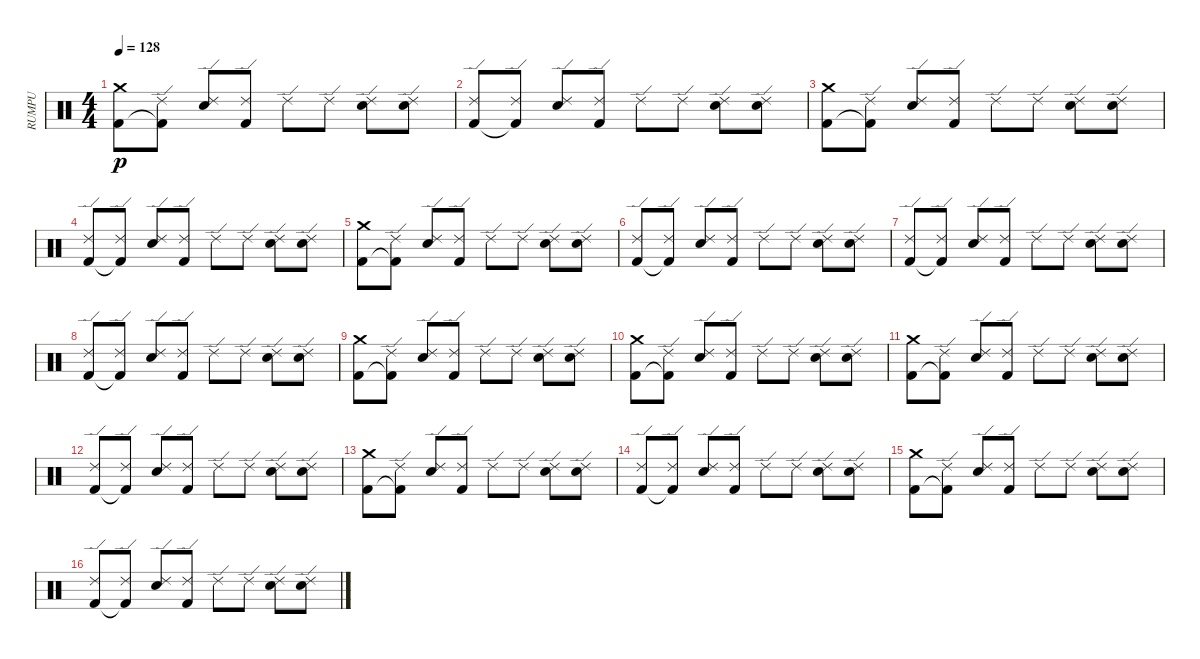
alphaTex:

\track ("RUMPU" "RUMPU") {instrument percussion}
\staff {score}
\articulation defaults
\ts (4 4)
\tempo 128
\clef neutral
\ks c
("Crash medium (hit)" "Kick (hit) 2").8{dy p} ("Ride (edge) 2" "Kick (hit) 2"{t}).8 ("Ride (edge) 2" "Electric Snare (hit)").8 ("Ride (edge) 2" "Kick (hit) 2").8 "Ride (edge) 2".8 "Ride (edge) 2".8 ("Ride (edge) 2" "Electric Snare (hit)").8 ("Ride (edge) 2" "Electric Snare (hit)").8 |
("Ride (edge) 2" "Kick (hit) 2").8 ("Ride (edge) 2" "Kick (hit) 2"{t}).8 ("Ride (edge) 2" "Electric Snare (hit)").8 ("Ride (edge) 2" "Kick (hit) 2").8 "Ride (edge) 2".8 "Ride (edge) 2".8 ("Ride (edge) 2" "Electric Snare (hit)").8 ("Ride (edge) 2" "Electric Snare (hit)").8 |
("Crash medium (hit)" "Kick (hit) 2").8 ("Ride (edge) 2" "Kick (hit) 2"{t}).8 ("Ride (edge) 2" "Electric Snare (hit)").8 ("Ride (edge) 2" "Kick (hit) 2").8 "Ride (edge) 2".8 "Ride (edge) 2".8 ("Ride (edge) 2" "Electric Snare (hit)").8 ("Ride (edge) 2" "Electric Snare (hit)").8 |
("Ride (edge) 2" "Kick (hit) 2").8 ("Ride (edge) 2" "Kick (hit) 2"{t}).8 ("Ride (edge) 2" "Electric Snare (hit)").8 ("Ride (edge) 2" "Kick (hit) 2").8 "Ride (edge) 2".8 "Ride (edge) 2".8 ("Ride (edge) 2" "Electric Snare (hit)").8 ("Ride (edge) 2" "Electric Snare (hit)").8 |
("Crash medium (hit)" "Kick (hit) 2").8 ("Ride (edge) 2" "Kick (hit) 2"{t}).8 ("Ride (edge) 2" "Electric Snare (hit)").8 ("Ride (edge) 2" "Kick (hit) 2").8 "Ride (edge) 2".8 "Ride (edge) 2".8 ("Ride (edge) 2" "Electric Snare (hit)").8 ("Ride (edge) 2" "Electric Snare (hit)").8 |
("Ride (edge) 2" "Kick (hit) 2").8 ("Ride (edge) 2" "Kick (hit) 2"{t}).8 ("Ride (edge) 2" "Electric Snare (hit)").8 ("Ride (edge) 2" "Kick (hit) 2").8 "Ride (edge) 2".8 "Ride (edge) 2".8 ("Ride (edge) 2" "Electric Snare (hit)").8 ("Ride (edge) 2" "Electric Snare (hit)").8 |
("Ride (edge) 2" "Kick (hit) 2").8 ("Ride (edge) 2" "Kick (hit) 2"{t}).8 ("Ride (edge) 2" "Electric Snare (hit)").8 ("Ride (edge) 2" "Kick (hit) 2").8 "Ride (edge) 2".8 "Ride (edge) 2".8 ("Ride (edge) 2" "Electric Snare (hit)").8 ("Ride (edge) 2" "Electric Snare (hit)").8 |
("Ride (edge) 2" "Kick (hit) 2").8 ("Ride (edge) 2" "Kick (hit) 2"{t}).8 ("Ride (edge) 2" "Electric Snare (hit)").8 ("Ride (edge) 2" "Kick (hit) 2").8 "Ride (edge) 2".8 "Ride (edge) 2".8 ("Ride (edge) 2" "Electric Snare (hit)").8 ("Ride (edge) 2" "Electric Snare (hit)").8 |
("Crash medium (hit)" "Kick (hit) 2").8 ("Ride (edge) 2" "Kick (hit) 2"{t}).8 ("Ride (edge) 2" "Electric Snare (hit)").8 ("Ride (edge) 2" "Kick (hit) 2").8 "Ride (edge) 2".8 "Ride (edge) 2".8 ("Ride (edge) 2" "Electric Snare (hit)").8 ("Ride (edge) 2" "Electric Snare (hit)").8 |
("Crash medium (hit)" "Kick (hit) 2").8 ("Ride (edge) 2" "Kick (hit) 2"{t}).8 ("Ride (edge) 2" "Electric Snare (hit)").8 ("Ride (edge) 2" "Kick (hit) 2").8 "Ride (edge) 2".8 "Ride (edge) 2".8 ("Ride (edge) 2" "Electric Snare (hit)").8 ("Ride (edge) 2" "Electric Snare (hit)").8 |
("Crash medium (hit)" "Kick (hit) 2").8 ("Ride (edge) 2" "Kick (hit) 2"{t}).8 ("Ride (edge) 2" "Electric Snare (hit)").8 ("Ride (edge) 2" "Kick (hit) 2").8 "Ride (edge) 2".8 "Ride (edge) 2".8 ("Ride (edge) 2" "Electric Snare (hit)").8 ("Ride (edge) 2" "Electric Snare (hit)").8 |
("Ride (edge) 2" "Kick (hit) 2").8 ("Ride (edge) 2" "Kick (hit) 2"{t}).8 ("Ride (edge) 2" "Electric Snare (hit)").8 ("Ride (edge) 2" "Kick (hit) 2").8 "Ride (edge) 2".8 "Ride (edge) 2".8 ("Ride (edge) 2" "Electric Snare (hit)").8 ("Ride (edge) 2" "Electric Snare (hit)").8 |
("Crash medium (hit)" "Kick (hit) 2").8 ("Ride (edge) 2" "Kick (hit) 2"{t}).8 ("Ride (edge) 2" "Electric Snare (hit)").8 ("Ride (edge) 2" "Kick (hit) 2").8 "Ride (edge) 2".8 "Ride (edge) 2".8 ("Ride (edge) 2" "Electric Snare (hit)").8 ("Ride (edge) 2" "Electric Snare (hit)").8 |
("Ride (edge) 2" "Kick (hit) 2").8 ("Ride (edge) 2" "Kick (hit) 2"{t}).8 ("Ride (edge) 2" "Electric Snare (hit)").8 ("Ride (edge) 2" "Kick (hit) 2").8 "Ride (edge) 2".8 "Ride (edge) 2".8 ("Ride (edge) 2" "Electric Snare (hit)").8 ("Ride (edge) 2" "Electric Snare (hit)").8 |
("Crash medium (hit)" "Kick (hit) 2").8 ("Ride (edge) 2" "Kick (hit) 2"{t}).8 ("Ride (edge) 2" "Electric Snare (hit)").8 ("Ride (edge) 2" "Kick (hit) 2").8 "Ride (edge) 2".8 "Ride (edge) 2".8 ("Ride (edge) 2" "Electric Snare (hit)").8 ("Ride (edge) 2" "Electric Snare (hit)").8 |
("Ride (edge) 2" "Kick (hit) 2").8 ("Ride (edge) 2" "Kick (hit) 2"{t}).8 ("Ride (edge) 2" "Electric Snare (hit)").8 ("Ride (edge) 2" "Kick (hit) 2").8 "Ride (edge) 2".8 "Ride (edge) 2".8 ("Ride (edge) 2" "Electric Snare (hit)").8 ("Ride (edge) 2" "Electric Snare (hit)").8
